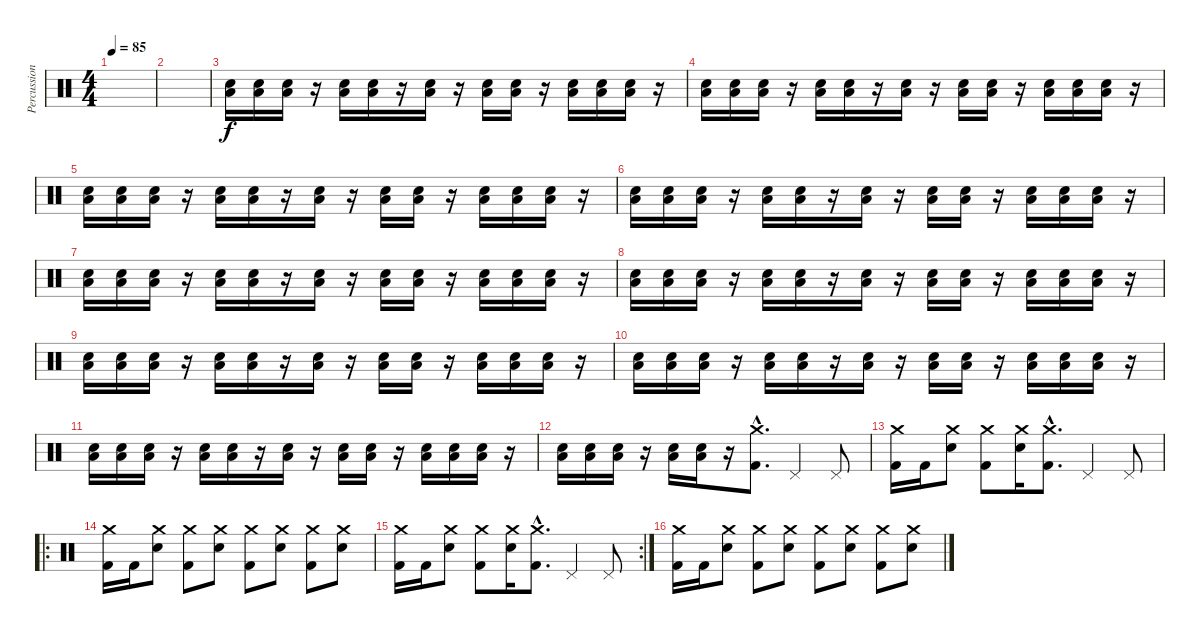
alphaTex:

\track ("Percussion" "Percussion") {instrument percussion}
\staff {score}
\articulation defaults
\ts (4 4)
\tempo 85
\clef neutral
\ks c
|
|
("Low Floor Tom (hit)" "Electric Snare (hit)").16 ("Low Floor Tom (hit)" "Electric Snare (hit)").16 ("Low Floor Tom (hit)" "Electric Snare (hit)").16 r.16 ("Low Floor Tom (hit)" "Electric Snare (hit)").16 ("Low Floor Tom (hit)" "Electric Snare (hit)").16 r.16 ("Low Floor Tom (hit)" "Electric Snare (hit)").16 r.16 ("Low Floor Tom (hit)" "Electric Snare (hit)").16 ("Low Floor Tom (hit)" "Electric Snare (hit)").16 r.16 ("Low Floor Tom (hit)" "Electric Snare (hit)").16 ("Low Floor Tom (hit)" "Electric Snare (hit)").16 ("Low Floor Tom (hit)" "Electric Snare (hit)").16 r.16 |
("Low Floor Tom (hit)" "Electric Snare (hit)").16 ("Low Floor Tom (hit)" "Electric Snare (hit)").16 ("Low Floor Tom (hit)" "Electric Snare (hit)").16 r.16 ("Low Floor Tom (hit)" "Electric Snare (hit)").16 ("Low Floor Tom (hit)" "Electric Snare (hit)").16 r.16 ("Low Floor Tom (hit)" "Electric Snare (hit)").16 r.16 ("Low Floor Tom (hit)" "Electric Snare (hit)").16 ("Low Floor Tom (hit)" "Electric Snare (hit)").16 r.16 ("Low Floor Tom (hit)" "Electric Snare (hit)").16 ("Low Floor Tom (hit)" "Electric Snare (hit)").16 ("Low Floor Tom (hit)" "Electric Snare (hit)").16 r.16 |
("Low Floor Tom (hit)" "Electric Snare (hit)").16 ("Low Floor Tom (hit)" "Electric Snare (hit)").16 ("Low Floor Tom (hit)" "Electric Snare (hit)").16 r.16 ("Low Floor Tom (hit)" "Electric Snare (hit)").16 ("Low Floor Tom (hit)" "Electric Snare (hit)").16 r.16 ("Low Floor Tom (hit)" "Electric Snare (hit)").16 r.16 ("Low Floor Tom (hit)" "Electric Snare (hit)").16 ("Low Floor Tom (hit)" "Electric Snare (hit)").16 r.16 ("Low Floor Tom (hit)" "Electric Snare (hit)").16 ("Low Floor Tom (hit)" "Electric Snare (hit)").16 ("Low Floor Tom (hit)" "Electric Snare (hit)").16 r.16 |
("Low Floor Tom (hit)" "Electric Snare (hit)").16 ("Low Floor Tom (hit)" "Electric Snare (hit)").16 ("Low Floor Tom (hit)" "Electric Snare (hit)").16 r.16 ("Low Floor Tom (hit)" "Electric Snare (hit)").16 ("Low Floor Tom (hit)" "Electric Snare (hit)").16 r.16 ("Low Floor Tom (hit)" "Electric Snare (hit)").16 r.16 ("Low Floor Tom (hit)" "Electric Snare (hit)").16 ("Low Floor Tom (hit)" "Electric Snare (hit)").16 r.16 ("Low Floor Tom (hit)" "Electric Snare (hit)").16 ("Low Floor Tom (hit)" "Electric Snare (hit)").16 ("Low Floor Tom (hit)" "Electric Snare (hit)").16 r.16 |
("Low Floor Tom (hit)" "Electric Snare (hit)").16 ("Low Floor Tom (hit)" "Electric Snare (hit)").16 ("Low Floor Tom (hit)" "Electric Snare (hit)").16 r.16 ("Low Floor Tom (hit)" "Electric Snare (hit)").16 ("Low Floor Tom (hit)" "Electric Snare (hit)").16 r.16 ("Low Floor Tom (hit)" "Electric Snare (hit)").16 r.16 ("Low Floor Tom (hit)" "Electric Snare (hit)").16 ("Low Floor Tom (hit)" "Electric Snare (hit)").16 r.16 ("Low Floor Tom (hit)" "Electric Snare (hit)").16 ("Low Floor Tom (hit)" "Electric Snare (hit)").16 ("Low Floor Tom (hit)" "Electric Snare (hit)").16 r.16 |
("Low Floor Tom (hit)" "Electric Snare (hit)").16 ("Low Floor Tom (hit)" "Electric Snare (hit)").16 ("Low Floor Tom (hit)" "Electric Snare (hit)").16 r.16 ("Low Floor Tom (hit)" "Electric Snare (hit)").16 ("Low Floor Tom (hit)" "Electric Snare (hit)").16 r.16 ("Low Floor Tom (hit)" "Electric Snare (hit)").16 r.16 ("Low Floor Tom (hit)" "Electric Snare (hit)").16 ("Low Floor Tom (hit)" "Electric Snare (hit)").16 r.16 ("Low Floor Tom (hit)" "Electric Snare (hit)").16 ("Low Floor Tom (hit)" "Electric Snare (hit)").16 ("Low Floor Tom (hit)" "Electric Snare (hit)").16 r.16 |
("Low Floor Tom (hit)" "Electric Snare (hit)").16 ("Low Floor Tom (hit)" "Electric Snare (hit)").16 ("Low Floor Tom (hit)" "Electric Snare (hit)").16 r.16 ("Low Floor Tom (hit)" "Electric Snare (hit)").16 ("Low Floor Tom (hit)" "Electric Snare (hit)").16 r.16 ("Low Floor Tom (hit)" "Electric Snare (hit)").16 r.16 ("Low Floor Tom (hit)" "Electric Snare (hit)").16 ("Low Floor Tom (hit)" "Electric Snare (hit)").16 r.16 ("Low Floor Tom (hit)" "Electric Snare (hit)").16 ("Low Floor Tom (hit)" "Electric Snare (hit)").16 ("Low Floor Tom (hit)" "Electric Snare (hit)").16 r.16 |
("Low Floor Tom (hit)" "Electric Snare (hit)").16 ("Low Floor Tom (hit)" "Electric Snare (hit)").16 ("Low Floor Tom (hit)" "Electric Snare (hit)").16 r.16 ("Low Floor Tom (hit)" "Electric Snare (hit)").16 ("Low Floor Tom (hit)" "Electric Snare (hit)").16 r.16 ("Low Floor Tom (hit)" "Electric Snare (hit)").16 r.16 ("Low Floor Tom (hit)" "Electric Snare (hit)").16 ("Low Floor Tom (hit)" "Electric Snare (hit)").16 r.16 ("Low Floor Tom (hit)" "Electric Snare (hit)").16 ("Low Floor Tom (hit)" "Electric Snare (hit)").16 ("Low Floor Tom (hit)" "Electric Snare (hit)").16 r.16 |
("Low Floor Tom (hit)" "Electric Snare (hit)").16 ("Low Floor Tom (hit)" "Electric Snare (hit)").16 ("Low Floor Tom (hit)" "Electric Snare (hit)").16 r.16 ("Low Floor Tom (hit)" "Electric Snare (hit)").16 ("Low Floor Tom (hit)" "Electric Snare (hit)").16 r.16 ("Low Floor Tom (hit)" "Electric Snare (hit)").16 r.16 ("Low Floor Tom (hit)" "Electric Snare (hit)").16 ("Low Floor Tom (hit)" "Electric Snare (hit)").16 r.16 ("Low Floor Tom (hit)" "Electric Snare (hit)").16 ("Low Floor Tom (hit)" "Electric Snare (hit)").16 ("Low Floor Tom (hit)" "Electric Snare (hit)").16 r.16 |
("Low Floor Tom (hit)" "Electric Snare (hit)").16 ("Low Floor Tom (hit)" "Electric Snare (hit)").16 ("Low Floor Tom (hit)" "Electric Snare (hit)").16 r.16 ("Low Floor Tom (hit)" "Electric Snare (hit)").16 ("Low Floor Tom (hit)" "Electric Snare (hit)").16 r.16 ("Crash medium (hit)"{hac} "Kick (hit) 2"{hac}).8{d} "Pedal Hi-Hat (hit)".4 "Pedal Hi-Hat (hit)".8 |
("Crash medium (hit)" "Kick (hit) 2").16 "Kick (hit) 2".16 ("Crash medium (hit)" "Electric Snare (hit)").8 ("Crash medium (hit)" "Kick (hit) 2").8 ("Crash medium (hit)" "Electric Snare (hit)").16 ("Crash medium (hit)"{hac} "Kick (hit) 2"{hac}).8{d} "Pedal Hi-Hat (hit)".4 "Pedal Hi-Hat (hit)".8 |
\ro
("Crash medium (hit)" "Kick (hit) 2").16 "Kick (hit) 2".16 ("Crash medium (hit)" "Electric Snare (hit)").8 ("Crash medium (hit)" "Kick (hit) 2").8 ("Crash medium (hit)" "Electric Snare (hit)").8 ("Crash medium (hit)" "Kick (hit) 2").8 ("Crash medium (hit)" "Electric Snare (hit)").8 ("Crash medium (hit)" "Kick (hit) 2").8 ("Crash medium (hit)" "Electric Snare (hit)").8 |
\rc 2
("Crash medium (hit)" "Kick (hit) 2").16 "Kick (hit) 2".16 ("Crash medium (hit)" "Electric Snare (hit)").8 ("Crash medium (hit)" "Kick (hit) 2").8 ("Crash medium (hit)" "Electric Snare (hit)").16 ("Crash medium (hit)"{hac} "Kick (hit) 2"{hac}).8{d} "Pedal Hi-Hat (hit)".4 "Pedal Hi-Hat (hit)".8 |
("Crash medium (hit)" "Kick (hit) 2").16 "Kick (hit) 2".16 ("Crash medium (hit)" "Electric Snare (hit)").8 ("Crash medium (hit)" "Kick (hit) 2").8 ("Crash medium (hit)" "Electric Snare (hit)").8 ("Crash medium (hit)" "Kick (hit) 2").8 ("Crash medium (hit)" "Electric Snare (hit)").8 ("Crash medium (hit)" "Kick (hit) 2").8 ("Crash medium (hit)" "Electric Snare (hit)").8
